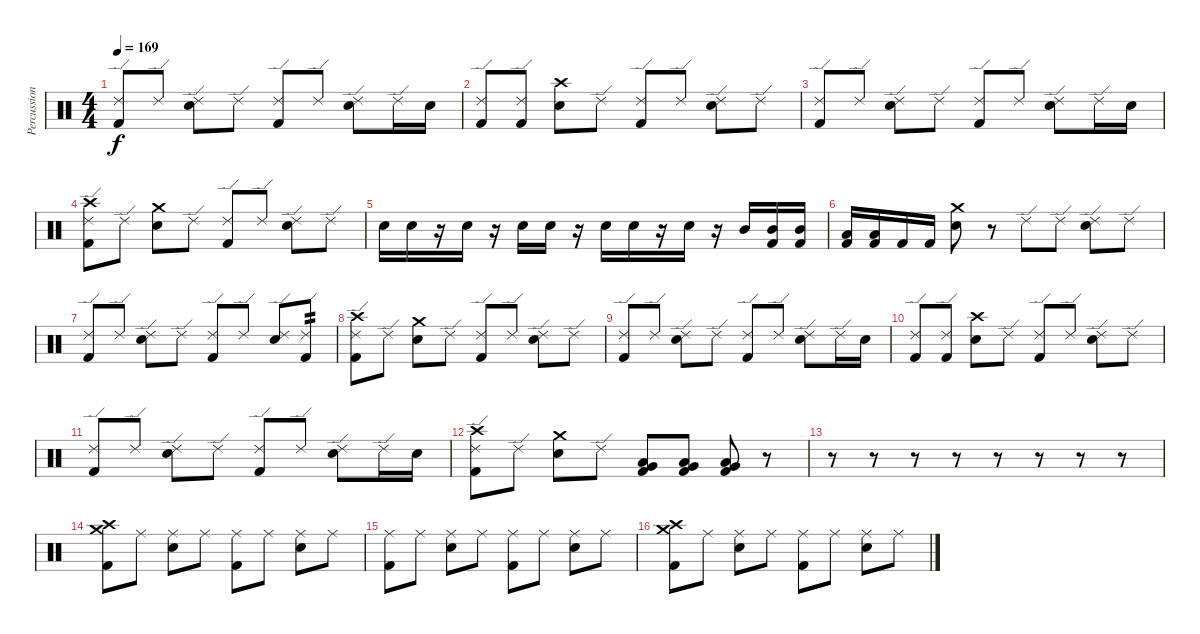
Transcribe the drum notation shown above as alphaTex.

\track ("Percussion" "Percussion") {instrument percussion}
\staff {score}
\articulation defaults
\ts (4 4)
\tempo 169
\clef neutral
\ks c
("Ride (edge) 2" "Kick (hit) 2").8{dy f} "Ride (edge) 2".8 ("Ride (edge) 2" "Electric Snare (hit)").8 "Ride (edge) 2".8 ("Ride (edge) 2" "Kick (hit) 2").8 "Ride (edge) 2".8 ("Ride (edge) 2" "Electric Snare (hit)").8 "Ride (edge) 2".16 "Electric Snare (hit)".16 |
("Ride (edge) 2" "Kick (hit) 2").8 ("Ride (edge) 2" "Kick (hit) 2").8 ("Crash high (hit)" "Electric Snare (hit)").8 "Ride (edge) 2".8 ("Ride (edge) 2" "Kick (hit) 2").8 "Ride (edge) 2".8 ("Ride (edge) 2" "Electric Snare (hit)").8 "Ride (edge) 2".8 |
("Ride (edge) 2" "Kick (hit) 2").8 "Ride (edge) 2".8 ("Ride (edge) 2" "Electric Snare (hit)").8 "Ride (edge) 2".8 ("Ride (edge) 2" "Kick (hit) 2").8 "Ride (edge) 2".8 ("Ride (edge) 2" "Electric Snare (hit)").8 "Ride (edge) 2".16 "Electric Snare (hit)".16 |
("Ride (edge) 2" "Crash high (hit)" "Kick (hit) 2").8 "Ride (edge) 2".8 ("Crash medium (hit)" "Electric Snare (hit)").8 "Ride (edge) 2".8 ("Ride (edge) 2" "Kick (hit) 2").8 "Ride (edge) 2".8 ("Ride (edge) 2" "Electric Snare (hit)").8 "Ride (edge) 2".8 |
"Electric Snare (hit)".16 "Electric Snare (hit)".16 r.16 "Electric Snare (hit)".16 r.16 "Electric Snare (hit)".16 "Electric Snare (hit)".16 r.16 "Electric Snare (hit)".16 "Electric Snare (hit)".16 r.16 "Electric Snare (hit)".16 r.16 "Mid Tom (hit)".16 ("Mid Tom (hit)" "Kick (hit) 2").16 ("Mid Tom (hit)" "Kick (hit) 2").16 |
("Low Tom (hit)" "Kick (hit) 2").16 ("Low Tom (hit)" "Kick (hit) 2").16 "Kick (hit) 2".16 "Kick (hit) 2".16 ("Crash medium (hit)" "Electric Snare (hit)").8 r.8 "Ride (edge) 2".8 "Ride (edge) 2".8 ("Ride (edge) 2" "Electric Snare (hit)").8 "Ride (edge) 2".8 |
("Ride (edge) 2" "Kick (hit) 2").8 "Ride (edge) 2".8 ("Ride (edge) 2" "Electric Snare (hit)").8 "Ride (edge) 2".8 ("Ride (edge) 2" "Kick (hit) 2").8 "Ride (edge) 2".8 ("Ride (edge) 2" "Electric Snare (hit)").8 ("Ride (edge) 2" "Kick (hit) 2").8{tp 2} |
("Ride (edge) 2" "Crash high (hit)" "Kick (hit) 2").8 "Ride (edge) 2".8 ("Crash medium (hit)" "Electric Snare (hit)").8 "Ride (edge) 2".8 ("Ride (edge) 2" "Kick (hit) 2").8 "Ride (edge) 2".8 ("Ride (edge) 2" "Electric Snare (hit)").8 "Ride (edge) 2".8 |
("Ride (edge) 2" "Kick (hit) 2").8 "Ride (edge) 2".8 ("Ride (edge) 2" "Electric Snare (hit)").8 "Ride (edge) 2".8 ("Ride (edge) 2" "Kick (hit) 2").8 "Ride (edge) 2".8 ("Ride (edge) 2" "Electric Snare (hit)").8 "Ride (edge) 2".16 "Electric Snare (hit)".16 |
("Ride (edge) 2" "Kick (hit) 2").8 ("Ride (edge) 2" "Kick (hit) 2").8 ("Crash high (hit)" "Electric Snare (hit)").8 "Ride (edge) 2".8 ("Ride (edge) 2" "Kick (hit) 2").8 "Ride (edge) 2".8 ("Ride (edge) 2" "Electric Snare (hit)").8 "Ride (edge) 2".8 |
("Ride (edge) 2" "Kick (hit) 2").8 "Ride (edge) 2".8 ("Ride (edge) 2" "Electric Snare (hit)").8 "Ride (edge) 2".8 ("Ride (edge) 2" "Kick (hit) 2").8 "Ride (edge) 2".8 ("Ride (edge) 2" "Electric Snare (hit)").8 "Ride (edge) 2".16 "Electric Snare (hit)".16 |
("Ride (edge) 2" "Crash high (hit)" "Kick (hit) 2").8 "Ride (edge) 2".8 ("Crash medium (hit)" "Electric Snare (hit)").8 "Ride (edge) 2".8 ("Low Tom (hit)" "Very Low Tom (hit)" "Kick (hit) 2").8 ("Low Tom (hit)" "Very Low Tom (hit)" "Kick (hit) 2").8 ("Low Tom (hit)" "Very Low Tom (hit)" "Kick (hit) 2").8 r.8 |
r.8 r.8 r.8 r.8 r.8 r.8 r.8 r.8 |
("Crash high (hit)" "Crash medium (hit)" "Kick (hit) 2").8 "Ride (middle)".8 ("Ride (middle)" "Electric Snare (hit)").8 "Ride (middle)".8 ("Ride (middle)" "Kick (hit) 2").8 "Ride (middle)".8 ("Ride (middle)" "Electric Snare (hit)").8 "Ride (middle)".8 |
("Ride (middle)" "Kick (hit) 2").8 "Ride (middle)".8 ("Ride (middle)" "Electric Snare (hit)").8 "Ride (middle)".8 ("Ride (middle)" "Kick (hit) 2").8 "Ride (middle)".8 ("Ride (middle)" "Electric Snare (hit)").8 "Ride (middle)".8 |
("Crash high (hit)" "Crash medium (hit)" "Kick (hit) 2").8 "Ride (middle)".8 ("Ride (middle)" "Electric Snare (hit)").8 "Ride (middle)".8 ("Ride (middle)" "Kick (hit) 2").8 "Ride (middle)".8 ("Ride (middle)" "Electric Snare (hit)").8 "Ride (middle)".8
